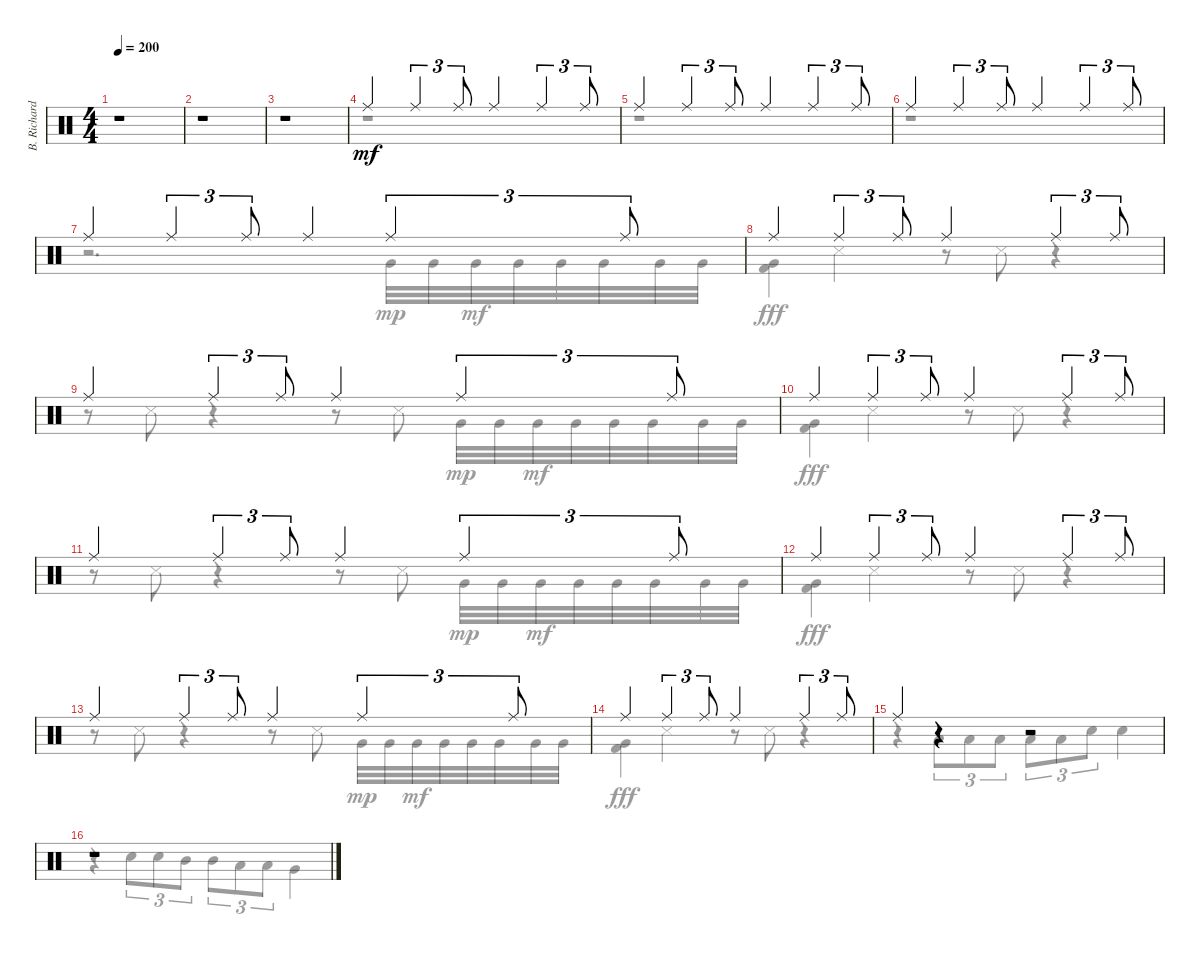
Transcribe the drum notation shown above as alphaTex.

\track ("B. Richardson Drums" "B. Richard") {instrument percussion}
\staff {score}
\articulation defaults
\voice
\ts (4 4)
\tempo 200
\clef neutral
\ks c
r.1{dy mp} |
r.1 |
r.1 |
"Ride (middle)".4{dy mf} "Ride (middle)".4{tu (3 2)} "Ride (middle)".8{tu (3 2)} "Ride (middle)".4 "Ride (middle)".4{tu (3 2)} "Ride (middle)".8{tu (3 2)} |
"Ride (middle)".4 "Ride (middle)".4{tu (3 2)} "Ride (middle)".8{tu (3 2)} "Ride (middle)".4 "Ride (middle)".4{tu (3 2)} "Ride (middle)".8{tu (3 2)} |
"Ride (middle)".4 "Ride (middle)".4{tu (3 2)} "Ride (middle)".8{tu (3 2)} "Ride (middle)".4 "Ride (middle)".4{tu (3 2)} "Ride (middle)".8{tu (3 2)} |
"Ride (middle)".4 "Ride (middle)".4{tu (3 2)} "Ride (middle)".8{tu (3 2)} "Ride (middle)".4 "Ride (middle)".4{tu (3 2)} "Ride (middle)".8{tu (3 2)} |
"Ride (middle)".4 "Ride (middle)".4{tu (3 2)} "Ride (middle)".8{tu (3 2)} "Ride (middle)".4 "Ride (middle)".4{tu (3 2)} "Ride (middle)".8{tu (3 2)} |
"Ride (middle)".4 "Ride (middle)".4{tu (3 2)} "Ride (middle)".8{tu (3 2)} "Ride (middle)".4 "Ride (middle)".4{tu (3 2)} "Ride (middle)".8{tu (3 2)} |
"Ride (middle)".4 "Ride (middle)".4{tu (3 2)} "Ride (middle)".8{tu (3 2)} "Ride (middle)".4 "Ride (middle)".4{tu (3 2)} "Ride (middle)".8{tu (3 2)} |
"Ride (middle)".4 "Ride (middle)".4{tu (3 2)} "Ride (middle)".8{tu (3 2)} "Ride (middle)".4 "Ride (middle)".4{tu (3 2)} "Ride (middle)".8{tu (3 2)} |
"Ride (middle)".4 "Ride (middle)".4{tu (3 2)} "Ride (middle)".8{tu (3 2)} "Ride (middle)".4 "Ride (middle)".4{tu (3 2)} "Ride (middle)".8{tu (3 2)} |
"Ride (middle)".4 "Ride (middle)".4{tu (3 2)} "Ride (middle)".8{tu (3 2)} "Ride (middle)".4 "Ride (middle)".4{tu (3 2)} "Ride (middle)".8{tu (3 2)} |
"Ride (middle)".4 "Ride (middle)".4{tu (3 2)} "Ride (middle)".8{tu (3 2)} "Ride (middle)".4 "Ride (middle)".4{tu (3 2)} "Ride (middle)".8{tu (3 2)} |
"Ride (middle)".4 r.4 r.2 |
r.1
\voice
\clef neutral
\ottava regular
\simile none
\ks c
r.1{dy fff} |
r.1 |
r.1 |
r.1 |
r.1 |
r.1 |
r.2{d} "Very Low Tom (hit)".32{dy mp} "Very Low Tom (hit)".32 "Very Low Tom (hit)".32{dy mf} "Very Low Tom (hit)".32 "Very Low Tom (hit)".32 "Very Low Tom (hit)".32 "Very Low Tom (hit)".32 "Very Low Tom (hit)".32 |
("Very Low Tom (hit)" "Kick (hit) 2").4{dy fff} "Snare (side stick) 3".4 r.8 "Snare (side stick) 3".8 r.4 |
r.8 "Snare (side stick) 3".8 r.4 r.8 "Snare (side stick) 3".8 "Very Low Tom (hit)".32{dy mp} "Very Low Tom (hit)".32 "Very Low Tom (hit)".32{dy mf} "Very Low Tom (hit)".32 "Very Low Tom (hit)".32 "Very Low Tom (hit)".32 "Very Low Tom (hit)".32 "Very Low Tom (hit)".32 |
("Very Low Tom (hit)" "Kick (hit) 2").4{dy fff} "Snare (side stick) 3".4 r.8 "Snare (side stick) 3".8 r.4 |
r.8 "Snare (side stick) 3".8 r.4 r.8 "Snare (side stick) 3".8 "Very Low Tom (hit)".32{dy mp} "Very Low Tom (hit)".32 "Very Low Tom (hit)".32{dy mf} "Very Low Tom (hit)".32 "Very Low Tom (hit)".32 "Very Low Tom (hit)".32 "Very Low Tom (hit)".32 "Very Low Tom (hit)".32 |
("Very Low Tom (hit)" "Kick (hit) 2").4{dy fff} "Snare (side stick) 3".4 r.8 "Snare (side stick) 3".8 r.4 |
r.8 "Snare (side stick) 3".8 r.4 r.8 "Snare (side stick) 3".8 "Very Low Tom (hit)".32{dy mp} "Very Low Tom (hit)".32 "Very Low Tom (hit)".32{dy mf} "Very Low Tom (hit)".32 "Very Low Tom (hit)".32 "Very Low Tom (hit)".32 "Very Low Tom (hit)".32 "Very Low Tom (hit)".32 |
("Very Low Tom (hit)" "Kick (hit) 2").4{dy fff} "Snare (side stick) 3".4 r.8 "Snare (side stick) 3".8 r.4 |
r.4 "Low Tom (hit)".8{tu (3 2)} "Low Tom (hit)".8{tu (3 2)} "Low Tom (hit)".8{tu (3 2)} "Low Tom (hit)".8{tu (3 2)} "Low Tom (hit)".8{tu (3 2)} "Electric Snare (hit)".8{tu (3 2)} "Electric Snare (hit)".4 |
r.4 "Electric Snare (hit)".8{tu (3 2)} "Electric Snare (hit)".8{tu (3 2)} "Mid Tom (hit)".8{tu (3 2)} "Mid Tom (hit)".8{tu (3 2)} "Low Tom (hit)".8{tu (3 2)} "Low Tom (hit)".8{tu (3 2)} "Very Low Tom (hit)".4
